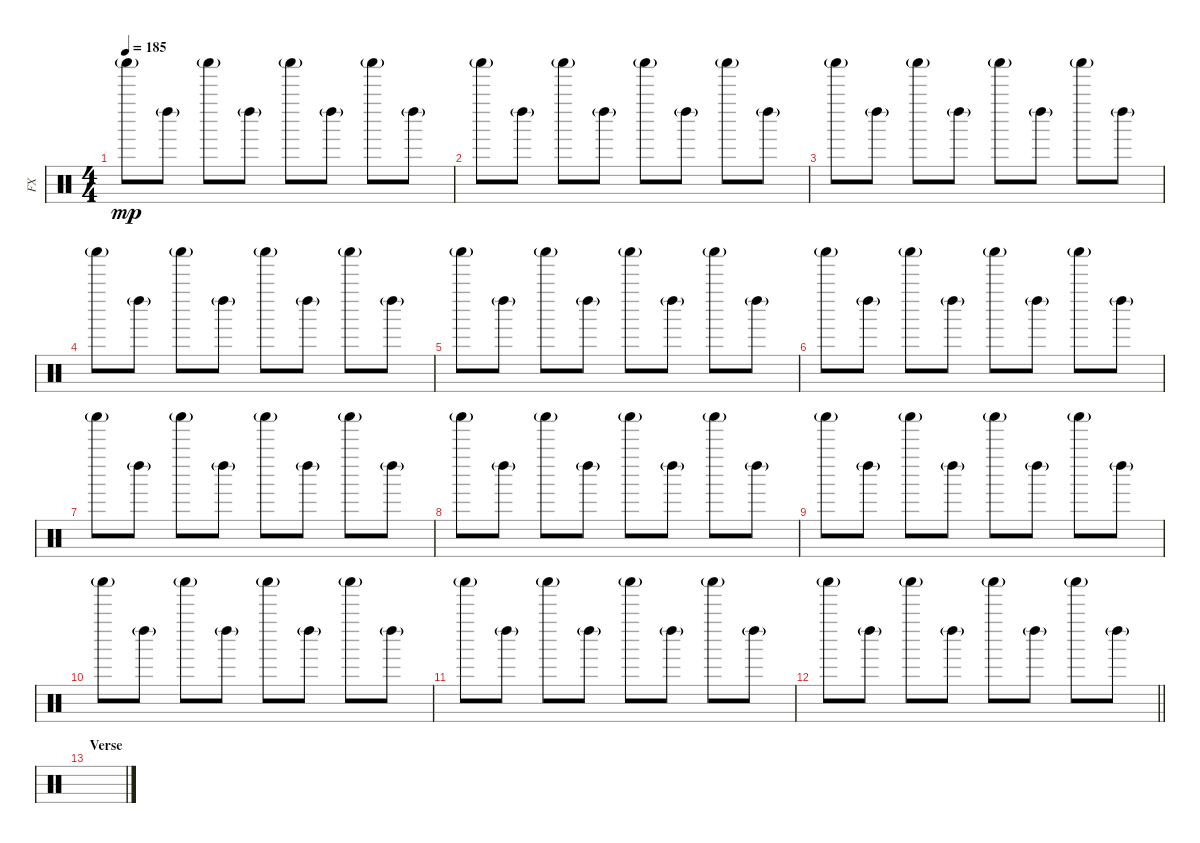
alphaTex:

\track ("FX" "FX") {instrument percussion}
\staff {score}
\articulation defaults
\ts (4 4)
\tempo 185
\clef neutral
\ks c "Shaker (hit)"{g}.8{dy mp} "Left Maraca (hit)"{g}.8 "Shaker (hit)"{g}.8 "Left Maraca (hit)"{g}.8 "Shaker (hit)"{g}.8 "Left Maraca (hit)"{g}.8 "Shaker (hit)"{g}.8 "Left Maraca (hit)"{g}.8
|
"Shaker (hit)"{g}.8 "Left Maraca (hit)"{g}.8 "Shaker (hit)"{g}.8 "Left Maraca (hit)"{g}.8 "Shaker (hit)"{g}.8 "Left Maraca (hit)"{g}.8 "Shaker (hit)"{g}.8 "Left Maraca (hit)"{g}.8 |
"Shaker (hit)"{g}.8 "Left Maraca (hit)"{g}.8 "Shaker (hit)"{g}.8 "Left Maraca (hit)"{g}.8 "Shaker (hit)"{g}.8 "Left Maraca (hit)"{g}.8 "Shaker (hit)"{g}.8 "Left Maraca (hit)"{g}.8 |
"Shaker (hit)"{g}.8 "Left Maraca (hit)"{g}.8 "Shaker (hit)"{g}.8 "Left Maraca (hit)"{g}.8 "Shaker (hit)"{g}.8 "Left Maraca (hit)"{g}.8 "Shaker (hit)"{g}.8 "Left Maraca (hit)"{g}.8 |
"Shaker (hit)"{g}.8 "Left Maraca (hit)"{g}.8 "Shaker (hit)"{g}.8 "Left Maraca (hit)"{g}.8 "Shaker (hit)"{g}.8 "Left Maraca (hit)"{g}.8 "Shaker (hit)"{g}.8 "Left Maraca (hit)"{g}.8 |
"Shaker (hit)"{g}.8 "Left Maraca (hit)"{g}.8 "Shaker (hit)"{g}.8 "Left Maraca (hit)"{g}.8 "Shaker (hit)"{g}.8 "Left Maraca (hit)"{g}.8 "Shaker (hit)"{g}.8 "Left Maraca (hit)"{g}.8 |
"Shaker (hit)"{g}.8 "Left Maraca (hit)"{g}.8 "Shaker (hit)"{g}.8 "Left Maraca (hit)"{g}.8 "Shaker (hit)"{g}.8 "Left Maraca (hit)"{g}.8 "Shaker (hit)"{g}.8 "Left Maraca (hit)"{g}.8 |
"Shaker (hit)"{g}.8 "Left Maraca (hit)"{g}.8 "Shaker (hit)"{g}.8 "Left Maraca (hit)"{g}.8 "Shaker (hit)"{g}.8 "Left Maraca (hit)"{g}.8 "Shaker (hit)"{g}.8 "Left Maraca (hit)"{g}.8 |
"Shaker (hit)"{g}.8 "Left Maraca (hit)"{g}.8 "Shaker (hit)"{g}.8 "Left Maraca (hit)"{g}.8 "Shaker (hit)"{g}.8 "Left Maraca (hit)"{g}.8 "Shaker (hit)"{g}.8 "Left Maraca (hit)"{g}.8 |
"Shaker (hit)"{g}.8 "Left Maraca (hit)"{g}.8 "Shaker (hit)"{g}.8 "Left Maraca (hit)"{g}.8 "Shaker (hit)"{g}.8 "Left Maraca (hit)"{g}.8 "Shaker (hit)"{g}.8 "Left Maraca (hit)"{g}.8 |
"Shaker (hit)"{g}.8 "Left Maraca (hit)"{g}.8 "Shaker (hit)"{g}.8 "Left Maraca (hit)"{g}.8 "Shaker (hit)"{g}.8 "Left Maraca (hit)"{g}.8 "Shaker (hit)"{g}.8 "Left Maraca (hit)"{g}.8 |
\barLineRight lightlight "Shaker (hit)"{g}.8 "Left Maraca (hit)"{g}.8 "Shaker (hit)"{g}.8 "Left Maraca (hit)"{g}.8 "Shaker (hit)"{g}.8 "Left Maraca (hit)"{g}.8 "Shaker (hit)"{g}.8 "Left Maraca (hit)"{g}.8
|
\section ("" "Verse")
